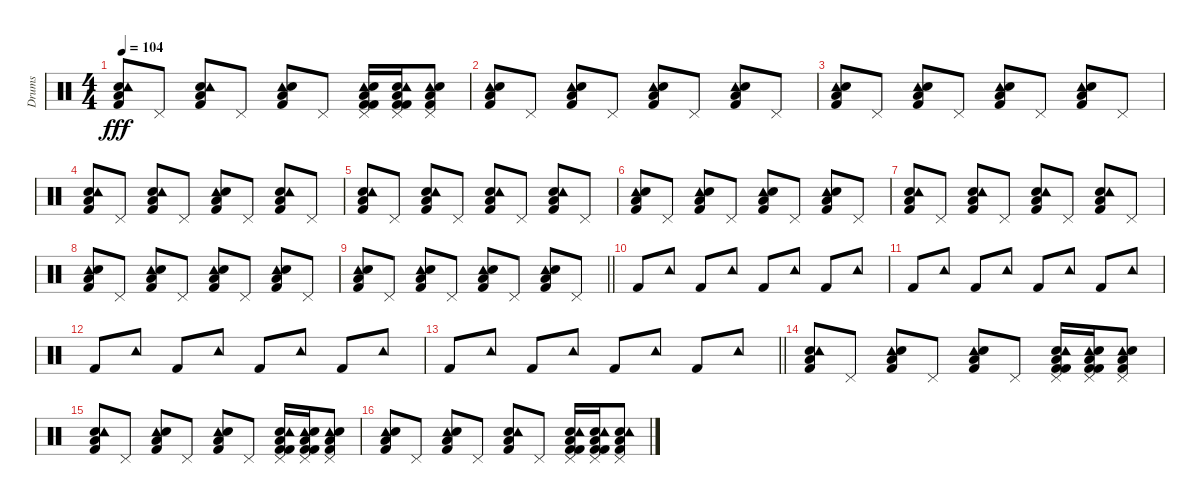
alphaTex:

\track ("Drums" "Drums") {instrument percussion}
\staff {score}
\articulation defaults
\ts (4 4)
\tempo 104
\clef neutral
\ks c
("Low Floor Tom (hit)" "Kick (hit) 2" "Snare (hit) 2" "Tambourine (hit)").8{dy fff} "Pedal Hi-Hat (hit)".8 ("Snare (hit) 2" "Low Floor Tom (hit)" "Kick (hit) 2" "Tambourine (hit)").8 "Pedal Hi-Hat (hit)".8 ("Tambourine (hit)" "Snare (hit) 2" "Kick (hit) 2" "Low Floor Tom (hit)").8 "Pedal Hi-Hat (hit)".8 ("Tambourine (hit)" "Kick (hit) 2" "Snare (hit) 2" "Pedal Hi-Hat (hit)" "Kick (hit) 2" "Low Floor Tom (hit)").16 ("Kick (hit) 2" "Kick (hit) 2" "Snare (hit) 2" "Low Floor Tom (hit)" "Pedal Hi-Hat (hit)" "Tambourine (hit)").16 ("Kick (hit) 2" "Low Floor Tom (hit)" "Pedal Hi-Hat (hit)" "Tambourine (hit)" "Snare (hit) 2").8 |
("Tambourine (hit)" "Low Floor Tom (hit)" "Kick (hit) 2" "Snare (hit) 2").8 "Pedal Hi-Hat (hit)".8 ("Tambourine (hit)" "Low Floor Tom (hit)" "Snare (hit) 2" "Kick (hit) 2").8 "Pedal Hi-Hat (hit)".8 ("Tambourine (hit)" "Low Floor Tom (hit)" "Snare (hit) 2" "Kick (hit) 2").8 "Pedal Hi-Hat (hit)".8 ("Tambourine (hit)" "Low Floor Tom (hit)" "Snare (hit) 2" "Kick (hit) 2").8 "Pedal Hi-Hat (hit)".8 |
("Tambourine (hit)" "Low Floor Tom (hit)" "Kick (hit) 2" "Snare (hit) 2").8 "Pedal Hi-Hat (hit)".8 ("Low Floor Tom (hit)" "Tambourine (hit)" "Snare (hit) 2" "Kick (hit) 2").8 "Pedal Hi-Hat (hit)".8 ("Tambourine (hit)" "Low Floor Tom (hit)" "Snare (hit) 2" "Kick (hit) 2").8 "Pedal Hi-Hat (hit)".8 ("Tambourine (hit)" "Low Floor Tom (hit)" "Snare (hit) 2" "Kick (hit) 2").8 "Pedal Hi-Hat (hit)".8 |
("Snare (hit) 2" "Kick (hit) 2" "Low Floor Tom (hit)" "Tambourine (hit)").8 "Pedal Hi-Hat (hit)".8 ("Kick (hit) 2" "Snare (hit) 2" "Low Floor Tom (hit)" "Tambourine (hit)").8 "Pedal Hi-Hat (hit)".8 ("Tambourine (hit)" "Kick (hit) 2" "Snare (hit) 2" "Low Floor Tom (hit)").8 "Pedal Hi-Hat (hit)".8 ("Kick (hit) 2" "Snare (hit) 2" "Low Floor Tom (hit)" "Tambourine (hit)").8 "Pedal Hi-Hat (hit)".8 |
("Snare (hit) 2" "Kick (hit) 2" "Low Floor Tom (hit)" "Tambourine (hit)").8 "Pedal Hi-Hat (hit)".8 ("Kick (hit) 2" "Snare (hit) 2" "Low Floor Tom (hit)" "Tambourine (hit)").8 "Pedal Hi-Hat (hit)".8 ("Kick (hit) 2" "Snare (hit) 2" "Low Floor Tom (hit)" "Tambourine (hit)").8 "Pedal Hi-Hat (hit)".8 ("Kick (hit) 2" "Snare (hit) 2" "Low Floor Tom (hit)" "Tambourine (hit)").8 "Pedal Hi-Hat (hit)".8 |
("Tambourine (hit)" "Low Floor Tom (hit)" "Kick (hit) 2" "Snare (hit) 2").8 "Pedal Hi-Hat (hit)".8 ("Tambourine (hit)" "Low Floor Tom (hit)" "Snare (hit) 2" "Kick (hit) 2").8 "Pedal Hi-Hat (hit)".8 ("Tambourine (hit)" "Low Floor Tom (hit)" "Snare (hit) 2" "Kick (hit) 2").8 "Pedal Hi-Hat (hit)".8 ("Tambourine (hit)" "Low Floor Tom (hit)" "Snare (hit) 2" "Kick (hit) 2").8 "Pedal Hi-Hat (hit)".8 |
("Snare (hit) 2" "Kick (hit) 2" "Low Floor Tom (hit)" "Tambourine (hit)").8 "Pedal Hi-Hat (hit)".8 ("Kick (hit) 2" "Snare (hit) 2" "Low Floor Tom (hit)" "Tambourine (hit)").8 "Pedal Hi-Hat (hit)".8 ("Kick (hit) 2" "Snare (hit) 2" "Low Floor Tom (hit)" "Tambourine (hit)").8 "Pedal Hi-Hat (hit)".8 ("Kick (hit) 2" "Snare (hit) 2" "Low Floor Tom (hit)" "Tambourine (hit)").8 "Pedal Hi-Hat (hit)".8 |
("Tambourine (hit)" "Low Floor Tom (hit)" "Kick (hit) 2" "Snare (hit) 2").8 "Pedal Hi-Hat (hit)".8 ("Tambourine (hit)" "Low Floor Tom (hit)" "Snare (hit) 2" "Kick (hit) 2").8 "Pedal Hi-Hat (hit)".8 ("Tambourine (hit)" "Low Floor Tom (hit)" "Snare (hit) 2" "Kick (hit) 2").8 "Pedal Hi-Hat (hit)".8 ("Tambourine (hit)" "Low Floor Tom (hit)" "Snare (hit) 2" "Kick (hit) 2").8 "Pedal Hi-Hat (hit)".8 |
\barLineRight lightlight
("Tambourine (hit)" "Low Floor Tom (hit)" "Kick (hit) 2" "Snare (hit) 2").8 "Pedal Hi-Hat (hit)".8 ("Tambourine (hit)" "Low Floor Tom (hit)" "Snare (hit) 2" "Kick (hit) 2").8 "Pedal Hi-Hat (hit)".8 ("Tambourine (hit)" "Low Floor Tom (hit)" "Snare (hit) 2" "Kick (hit) 2").8 "Pedal Hi-Hat (hit)".8 ("Tambourine (hit)" "Low Floor Tom (hit)" "Snare (hit) 2" "Kick (hit) 2").8 "Pedal Hi-Hat (hit)".8 |
"Kick (hit) 2".8 "Tambourine (hit)".8 "Kick (hit) 2".8 "Tambourine (hit)".8 "Kick (hit) 2".8 "Tambourine (hit)".8 "Kick (hit) 2".8 "Tambourine (hit)".8 |
"Kick (hit) 2".8 "Tambourine (hit)".8 "Kick (hit) 2".8 "Tambourine (hit)".8 "Kick (hit) 2".8 "Tambourine (hit)".8 "Kick (hit) 2".8 "Tambourine (hit)".8 |
"Kick (hit) 2".8 "Tambourine (hit)".8 "Kick (hit) 2".8 "Tambourine (hit)".8 "Kick (hit) 2".8 "Tambourine (hit)".8 "Kick (hit) 2".8 "Tambourine (hit)".8 |
\barLineRight lightlight "Kick (hit) 2".8 "Tambourine (hit)".8 "Kick (hit) 2".8 "Tambourine (hit)".8 "Kick (hit) 2".8 "Tambourine (hit)".8 "Kick (hit) 2".8 "Tambourine (hit)".8
|
("Low Floor Tom (hit)" "Kick (hit) 2" "Snare (hit) 2" "Tambourine (hit)").8 "Pedal Hi-Hat (hit)".8 ("Low Floor Tom (hit)" "Kick (hit) 2" "Tambourine (hit)" "Snare (hit) 2").8 "Pedal Hi-Hat (hit)".8 ("Tambourine (hit)" "Snare (hit) 2" "Kick (hit) 2" "Low Floor Tom (hit)").8 "Pedal Hi-Hat (hit)".8 ("Pedal Hi-Hat (hit)" "Low Floor Tom (hit)" "Snare (hit) 2" "Kick (hit) 2" "Kick (hit) 2" "Tambourine (hit)").16 ("Tambourine (hit)" "Kick (hit) 2" "Kick (hit) 2" "Snare (hit) 2" "Low Floor Tom (hit)" "Pedal Hi-Hat (hit)").16 ("Tambourine (hit)" "Snare (hit) 2" "Kick (hit) 2" "Low Floor Tom (hit)" "Pedal Hi-Hat (hit)").8 |
("Low Floor Tom (hit)" "Kick (hit) 2" "Snare (hit) 2" "Tambourine (hit)").8 "Pedal Hi-Hat (hit)".8 ("Low Floor Tom (hit)" "Kick (hit) 2" "Tambourine (hit)" "Snare (hit) 2").8 "Pedal Hi-Hat (hit)".8 ("Tambourine (hit)" "Snare (hit) 2" "Kick (hit) 2" "Low Floor Tom (hit)").8 "Pedal Hi-Hat (hit)".8 ("Pedal Hi-Hat (hit)" "Low Floor Tom (hit)" "Snare (hit) 2" "Kick (hit) 2" "Kick (hit) 2" "Tambourine (hit)").16 ("Tambourine (hit)" "Kick (hit) 2" "Kick (hit) 2" "Snare (hit) 2" "Low Floor Tom (hit)" "Pedal Hi-Hat (hit)").16 ("Tambourine (hit)" "Snare (hit) 2" "Kick (hit) 2" "Low Floor Tom (hit)" "Pedal Hi-Hat (hit)").8 |
("Tambourine (hit)" "Snare (hit) 2" "Kick (hit) 2" "Low Floor Tom (hit)").8 "Pedal Hi-Hat (hit)".8 ("Tambourine (hit)" "Kick (hit) 2" "Low Floor Tom (hit)" "Snare (hit) 2").8 "Pedal Hi-Hat (hit)".8 ("Low Floor Tom (hit)" "Kick (hit) 2" "Snare (hit) 2" "Tambourine (hit)").8 "Pedal Hi-Hat (hit)".8 ("Kick (hit) 2" "Kick (hit) 2" "Snare (hit) 2" "Low Floor Tom (hit)" "Pedal Hi-Hat (hit)" "Tambourine (hit)").16 ("Pedal Hi-Hat (hit)" "Low Floor Tom (hit)" "Snare (hit) 2" "Kick (hit) 2" "Kick (hit) 2" "Tambourine (hit)").16 ("Pedal Hi-Hat (hit)" "Low Floor Tom (hit)" "Kick (hit) 2" "Snare (hit) 2" "Tambourine (hit)").8
